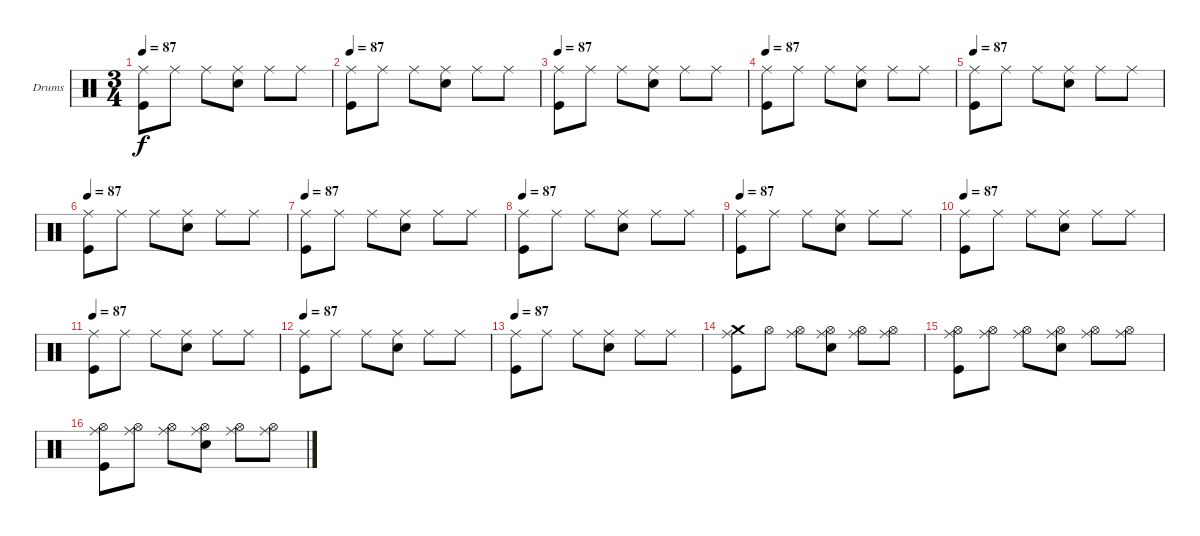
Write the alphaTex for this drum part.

\bracketExtendMode groupsimilarinstruments
\firstSystemTrackNameOrientation horizontal
\otherSystemsTrackNameOrientation horizontal
\track ("Drumkit" "Drums") {instrument percussion}
\staff {score}
\articulation defaults
\ts (3 4)
\tempo 87
\clef neutral
\ks c
("Ride (middle)" "Kick (hit)").8{dy f} "Ride (middle)".8 "Ride (middle)".8 ("Ride (middle)" "Snare (hit) 2").8 "Ride (middle)".8 "Ride (middle)".8 |
\tempo 87
("Ride (middle)" "Kick (hit)").8 "Ride (middle)".8 "Ride (middle)".8 ("Ride (middle)" "Snare (hit) 2").8 "Ride (middle)".8 "Ride (middle)".8 |
\tempo 87
("Ride (middle)" "Kick (hit)").8 "Ride (middle)".8 "Ride (middle)".8 ("Ride (middle)" "Snare (hit) 2").8 "Ride (middle)".8 "Ride (middle)".8 |
\tempo 87
("Ride (middle)" "Kick (hit)").8 "Ride (middle)".8 "Ride (middle)".8 ("Ride (middle)" "Snare (hit) 2").8 "Ride (middle)".8 "Ride (middle)".8 |
\tempo 87
("Ride (middle)" "Kick (hit)").8 "Ride (middle)".8 "Ride (middle)".8 ("Ride (middle)" "Snare (hit) 2").8 "Ride (middle)".8 "Ride (middle)".8 |
\tempo 87
("Ride (middle)" "Kick (hit)").8 "Ride (middle)".8 "Ride (middle)".8 ("Ride (middle)" "Snare (hit) 2").8 "Ride (middle)".8 "Ride (middle)".8 |
\tempo 87
("Ride (middle)" "Kick (hit)").8 "Ride (middle)".8 "Ride (middle)".8 ("Ride (middle)" "Snare (hit) 2").8 "Ride (middle)".8 "Ride (middle)".8 |
\tempo 87
("Ride (middle)" "Kick (hit)").8 "Ride (middle)".8 "Ride (middle)".8 ("Ride (middle)" "Snare (hit) 2").8 "Ride (middle)".8 "Ride (middle)".8 |
\tempo 87
("Ride (middle)" "Kick (hit)").8 "Ride (middle)".8 "Ride (middle)".8 ("Ride (middle)" "Snare (hit) 2").8 "Ride (middle)".8 "Ride (middle)".8 |
\tempo 87
("Ride (middle)" "Kick (hit)").8 "Ride (middle)".8 "Ride (middle)".8 ("Ride (middle)" "Snare (hit) 2").8 "Ride (middle)".8 "Ride (middle)".8 |
\tempo 87
("Ride (middle)" "Kick (hit)").8 "Ride (middle)".8 "Ride (middle)".8 ("Ride (middle)" "Snare (hit) 2").8 "Ride (middle)".8 "Ride (middle)".8 |
\tempo 87
("Ride (middle)" "Kick (hit)").8 "Ride (middle)".8 "Ride (middle)".8 ("Ride (middle)" "Snare (hit) 2").8 "Ride (middle)".8 "Ride (middle)".8 |
\tempo 87
("Ride (middle)" "Kick (hit)").8 "Ride (middle)".8 "Ride (middle)".8 ("Ride (middle)" "Snare (hit) 2").8 "Ride (middle)".8 "Ride (middle)".8 |
("Crash medium (hit)" "Ride (middle)" "Kick (hit)").8 "Hi-Hat (open)".8 ("Ride (middle)" "Hi-Hat (open)").8 ("Ride (middle)" "Snare (hit) 2" "Hi-Hat (open)").8 ("Ride (middle)" "Hi-Hat (open)").8 ("Ride (middle)" "Hi-Hat (open)").8 |
("Ride (middle)" "Kick (hit)" "Hi-Hat (open)").8 ("Ride (middle)" "Hi-Hat (open)").8 ("Ride (middle)" "Hi-Hat (open)").8 ("Ride (middle)" "Snare (hit) 2" "Hi-Hat (open)").8 ("Ride (middle)" "Hi-Hat (open)").8 ("Ride (middle)" "Hi-Hat (open)").8 |
("Ride (middle)" "Kick (hit)" "Hi-Hat (open)").8 ("Ride (middle)" "Hi-Hat (open)").8 ("Ride (middle)" "Hi-Hat (open)").8 ("Ride (middle)" "Snare (hit) 2" "Hi-Hat (open)").8 ("Ride (middle)" "Hi-Hat (open)").8 ("Ride (middle)" "Hi-Hat (open)").8
